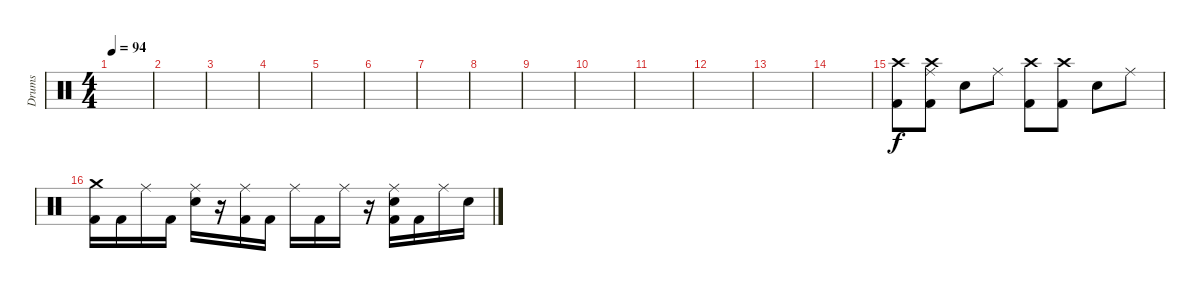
\track ("Drums" "Drums") {instrument percussion}
\staff {score}
\articulation defaults
\ts (4 4)
\tempo 94
\clef neutral
\ks c
|
|
|
|
|
|
|
|
|
|
|
|
|
|
("Crash high (hit)" "Kick (hit) 2").8 ("Crash high (hit)" "Ride (middle)" "Kick (hit) 2").8 "Snare (hit) 2".8 "Ride (middle)".8 ("Crash high (hit)" "Kick (hit) 2").8 ("Crash high (hit)" "Kick (hit) 2").8 "Snare (hit) 2".8 "Ride (middle)".8 |
("Crash medium (hit)" "Kick (hit) 2").16 "Kick (hit) 2".16 "Ride (middle)".16 "Kick (hit) 2".16 ("Snare (hit) 2" "Ride (middle)").16 r.16 ("Ride (middle)" "Kick (hit) 2").16 "Kick (hit) 2".16 "Ride (middle)".16 "Kick (hit) 2".16 "Ride (middle)".16 r.16 ("Snare (hit) 2" "Ride (middle)" "Kick (hit) 2").16 "Kick (hit) 2".16 "Ride (middle)".16 "Snare (hit) 2".16
